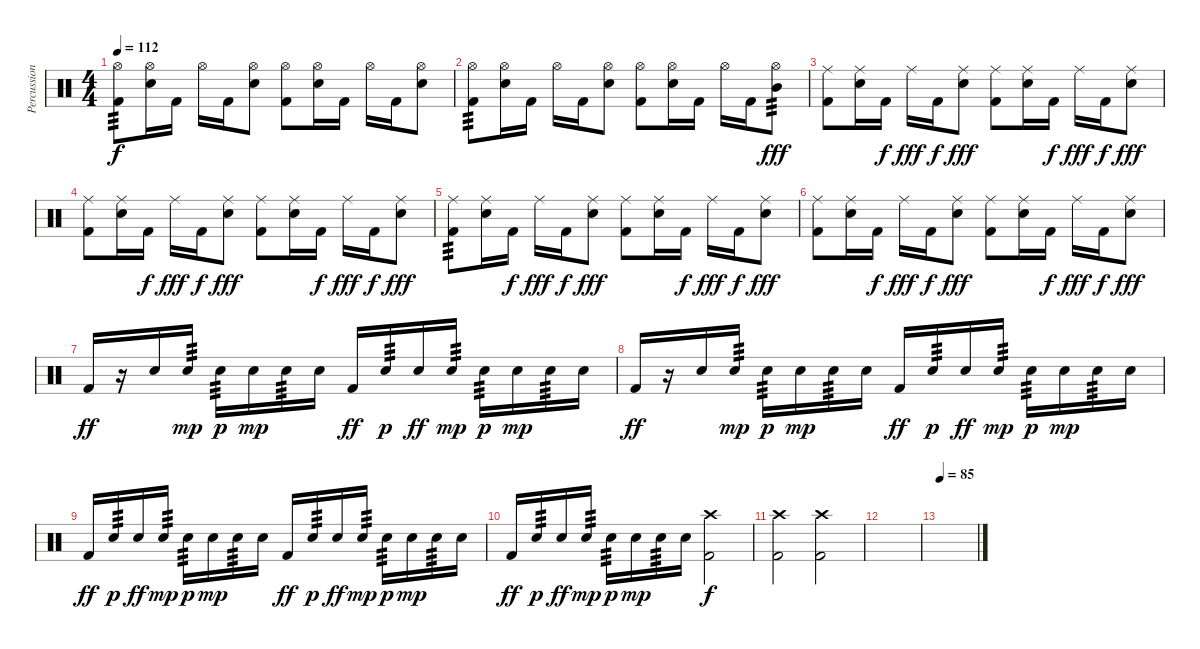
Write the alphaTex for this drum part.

\track ("Percussion" "Percussion") {instrument percussion}
\staff {score}
\articulation defaults
\ts (4 4)
\tempo 112
\clef neutral
\ks c
("Hi-Hat (open)" "Kick (hit) 2").8{tp 3 dy f} ("Hi-Hat (open)" "Electric Snare (hit)").16 "Kick (hit) 2".16 "Hi-Hat (open)".16 "Kick (hit) 2".16 ("Electric Snare (hit)" "Hi-Hat (open)").8 ("Hi-Hat (open)" "Kick (hit) 2").8 ("Hi-Hat (open)" "Electric Snare (hit)").16 "Kick (hit) 2".16 "Hi-Hat (open)".16 "Kick (hit) 2".16 ("Electric Snare (hit)" "Hi-Hat (open)").8 |
("Hi-Hat (open)" "Kick (hit) 2").8{tp 3} ("Hi-Hat (open)" "Electric Snare (hit)").16 "Kick (hit) 2".16 "Hi-Hat (open)".16 "Kick (hit) 2".16 ("Electric Snare (hit)" "Hi-Hat (open)").8 ("Hi-Hat (open)" "Kick (hit) 2").8 ("Hi-Hat (open)" "Electric Snare (hit)").16 "Kick (hit) 2".16 "Hi-Hat (open)".16 "Kick (hit) 2".16 ("Mid Tom (hit)" "Hi-Hat (open)").8{tp 3 dy fff} |
("Ride (middle)" "Kick (hit) 2").8 ("Ride (middle)" "Electric Snare (hit)").16 "Kick (hit) 2".16{dy f} "Ride (middle)".16{dy fff} "Kick (hit) 2".16{dy f} ("Electric Snare (hit)" "Ride (middle)").8{dy fff} ("Ride (middle)" "Kick (hit) 2").8 ("Ride (middle)" "Electric Snare (hit)").16 "Kick (hit) 2".16{dy f} "Ride (middle)".16{dy fff} "Kick (hit) 2".16{dy f} ("Electric Snare (hit)" "Ride (middle)").8{dy fff} |
("Ride (middle)" "Kick (hit) 2").8 ("Ride (middle)" "Electric Snare (hit)").16 "Kick (hit) 2".16{dy f} "Ride (middle)".16{dy fff} "Kick (hit) 2".16{dy f} ("Electric Snare (hit)" "Ride (middle)").8{dy fff} ("Ride (middle)" "Kick (hit) 2").8 ("Ride (middle)" "Electric Snare (hit)").16 "Kick (hit) 2".16{dy f} "Ride (middle)".16{dy fff} "Kick (hit) 2".16{dy f} ("Electric Snare (hit)" "Ride (middle)").8{dy fff} |
("Ride (middle)" "Kick (hit) 2").8{tp 3} ("Ride (middle)" "Electric Snare (hit)").16 "Kick (hit) 2".16{dy f} "Ride (middle)".16{dy fff} "Kick (hit) 2".16{dy f} ("Electric Snare (hit)" "Ride (middle)").8{dy fff} ("Ride (middle)" "Kick (hit) 2").8 ("Ride (middle)" "Electric Snare (hit)").16 "Kick (hit) 2".16{dy f} "Ride (middle)".16{dy fff} "Kick (hit) 2".16{dy f} ("Electric Snare (hit)" "Ride (middle)").8{dy fff} |
("Ride (middle)" "Kick (hit) 2").8 ("Ride (middle)" "Electric Snare (hit)").16 "Kick (hit) 2".16{dy f} "Ride (middle)".16{dy fff} "Kick (hit) 2".16{dy f} ("Electric Snare (hit)" "Ride (middle)").8{dy fff} ("Ride (middle)" "Kick (hit) 2").8 ("Ride (middle)" "Electric Snare (hit)").16 "Kick (hit) 2".16{dy f} "Ride (middle)".16{dy fff} "Kick (hit) 2".16{dy f} ("Electric Snare (hit)" "Ride (middle)").8{dy fff} |
"Kick (hit) 2".16{dy ff} r.16 "Electric Snare (hit)".16 "Electric Snare (hit)".16{tp 3 dy mp} "Electric Snare (hit)".16{tp 3 dy p} "Electric Snare (hit)".16{dy mp} "Electric Snare (hit)".16{tp 3} "Electric Snare (hit)".16 "Kick (hit) 2".16{dy ff} "Electric Snare (hit)".16{tp 3 dy p} "Electric Snare (hit)".16{dy ff} "Electric Snare (hit)".16{tp 3 dy mp} "Electric Snare (hit)".16{tp 3 dy p} "Electric Snare (hit)".16{dy mp} "Electric Snare (hit)".16{tp 3} "Electric Snare (hit)".16 |
"Kick (hit) 2".16{dy ff} r.16 "Electric Snare (hit)".16 "Electric Snare (hit)".16{tp 3 dy mp} "Electric Snare (hit)".16{tp 3 dy p} "Electric Snare (hit)".16{dy mp} "Electric Snare (hit)".16{tp 3} "Electric Snare (hit)".16 "Kick (hit) 2".16{dy ff} "Electric Snare (hit)".16{tp 3 dy p} "Electric Snare (hit)".16{dy ff} "Electric Snare (hit)".16{tp 3 dy mp} "Electric Snare (hit)".16{tp 3 dy p} "Electric Snare (hit)".16{dy mp} "Electric Snare (hit)".16{tp 3} "Electric Snare (hit)".16 |
"Kick (hit) 2".16{dy ff} "Electric Snare (hit)".16{tp 3 dy p} "Electric Snare (hit)".16{dy ff} "Electric Snare (hit)".16{tp 3 dy mp} "Electric Snare (hit)".16{tp 3 dy p} "Electric Snare (hit)".16{dy mp} "Electric Snare (hit)".16{tp 3} "Electric Snare (hit)".16 "Kick (hit) 2".16{dy ff} "Electric Snare (hit)".16{tp 3 dy p} "Electric Snare (hit)".16{dy ff} "Electric Snare (hit)".16{tp 3 dy mp} "Electric Snare (hit)".16{tp 3 dy p} "Electric Snare (hit)".16{dy mp} "Electric Snare (hit)".16{tp 3} "Electric Snare (hit)".16 |
"Kick (hit) 2".16{dy ff} "Electric Snare (hit)".16{tp 3 dy p} "Electric Snare (hit)".16{dy ff} "Electric Snare (hit)".16{tp 3 dy mp} "Electric Snare (hit)".16{tp 3 dy p} "Electric Snare (hit)".16{dy mp} "Electric Snare (hit)".16{tp 3} "Electric Snare (hit)".16 ("Crash high (hit)" "Kick (hit) 2").2{dy f} |
("Crash high (hit)" "Kick (hit) 2").2 ("Kick (hit) 2" "Crash high (hit)").2 |
|
\tempo 85
